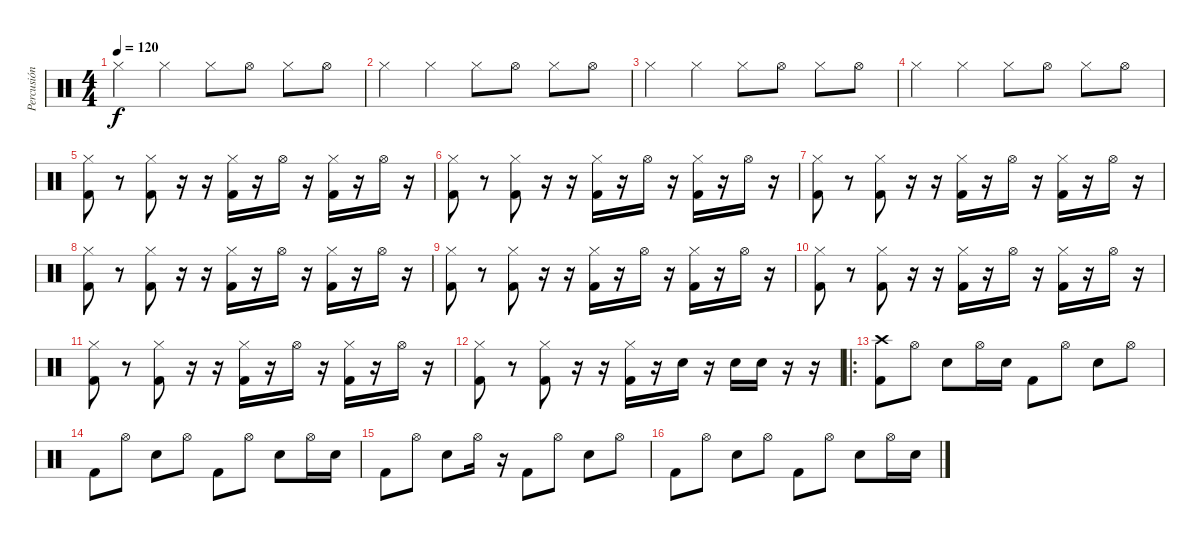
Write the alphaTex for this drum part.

\track ("Percusión" "Percusión") {instrument percussion}
\staff {score}
\articulation defaults
\ts (4 4)
\tempo 120
\clef neutral
\ks c "Hi-Hat (closed)".4{dy f} "Hi-Hat (closed)".4 "Hi-Hat (closed)".8 "Hi-Hat (open)".8 "Hi-Hat (closed)".8 "Hi-Hat (open)".8
|
"Hi-Hat (closed)".4 "Hi-Hat (closed)".4 "Hi-Hat (closed)".8 "Hi-Hat (open)".8 "Hi-Hat (closed)".8 "Hi-Hat (open)".8 |
"Hi-Hat (closed)".4 "Hi-Hat (closed)".4 "Hi-Hat (closed)".8 "Hi-Hat (open)".8 "Hi-Hat (closed)".8 "Hi-Hat (open)".8 |
"Hi-Hat (closed)".4 "Hi-Hat (closed)".4 "Hi-Hat (closed)".8 "Hi-Hat (open)".8 "Hi-Hat (closed)".8 "Hi-Hat (open)".8 |
("Hi-Hat (closed)" "Kick (hit) 2").8 r.8 ("Hi-Hat (closed)" "Kick (hit) 2").8 r.16 r.16 ("Hi-Hat (closed)" "Kick (hit) 2").16 r.16 "Hi-Hat (open)".16 r.16 ("Hi-Hat (closed)" "Kick (hit) 2").16 r.16 "Hi-Hat (open)".16 r.16 |
("Hi-Hat (closed)" "Kick (hit) 2").8 r.8 ("Hi-Hat (closed)" "Kick (hit) 2").8 r.16 r.16 ("Hi-Hat (closed)" "Kick (hit) 2").16 r.16 "Hi-Hat (open)".16 r.16 ("Hi-Hat (closed)" "Kick (hit) 2").16 r.16 "Hi-Hat (open)".16 r.16 |
("Hi-Hat (closed)" "Kick (hit) 2").8 r.8 ("Hi-Hat (closed)" "Kick (hit) 2").8 r.16 r.16 ("Hi-Hat (closed)" "Kick (hit) 2").16 r.16 "Hi-Hat (open)".16 r.16 ("Hi-Hat (closed)" "Kick (hit) 2").16 r.16 "Hi-Hat (open)".16 r.16 |
("Hi-Hat (closed)" "Kick (hit) 2").8 r.8 ("Hi-Hat (closed)" "Kick (hit) 2").8 r.16 r.16 ("Hi-Hat (closed)" "Kick (hit) 2").16 r.16 "Hi-Hat (open)".16 r.16 ("Hi-Hat (closed)" "Kick (hit) 2").16 r.16 "Hi-Hat (open)".16 r.16 |
("Hi-Hat (closed)" "Kick (hit) 2").8 r.8 ("Hi-Hat (closed)" "Kick (hit) 2").8 r.16 r.16 ("Hi-Hat (closed)" "Kick (hit) 2").16 r.16 "Hi-Hat (open)".16 r.16 ("Hi-Hat (closed)" "Kick (hit) 2").16 r.16 "Hi-Hat (open)".16 r.16 |
("Hi-Hat (closed)" "Kick (hit) 2").8 r.8 ("Hi-Hat (closed)" "Kick (hit) 2").8 r.16 r.16 ("Hi-Hat (closed)" "Kick (hit) 2").16 r.16 "Hi-Hat (open)".16 r.16 ("Hi-Hat (closed)" "Kick (hit) 2").16 r.16 "Hi-Hat (open)".16 r.16 |
("Hi-Hat (closed)" "Kick (hit) 2").8 r.8 ("Hi-Hat (closed)" "Kick (hit) 2").8 r.16 r.16 ("Hi-Hat (closed)" "Kick (hit) 2").16 r.16 "Hi-Hat (open)".16 r.16 ("Hi-Hat (closed)" "Kick (hit) 2").16 r.16 "Hi-Hat (open)".16 r.16 |
("Hi-Hat (closed)" "Kick (hit) 2").8 r.8 ("Hi-Hat (closed)" "Kick (hit) 2").8 r.16 r.16 ("Hi-Hat (closed)" "Kick (hit) 2").16 r.16 "Electric Snare (hit)".16 r.16 "Electric Snare (hit)".16 "Electric Snare (hit)".16 r.16 r.16 |
\ro
("Crash high (hit)" "Kick (hit) 2").8 "Hi-Hat (open)".8 "Snare (hit) 2".8 "Hi-Hat (open)".16 "Snare (hit) 2".16 "Kick (hit) 2".8 "Hi-Hat (open)".8 "Snare (hit) 2".8 "Hi-Hat (open)".8 |
"Kick (hit) 2".8 "Hi-Hat (open)".8 "Snare (hit) 2".8 "Hi-Hat (open)".8 "Kick (hit) 2".8 "Hi-Hat (open)".8 "Snare (hit) 2".8 "Hi-Hat (open)".16 "Snare (hit) 2".16 |
"Kick (hit) 2".8 "Hi-Hat (open)".8 "Snare (hit) 2".8 "Hi-Hat (open)".16 r.16 "Kick (hit) 2".8 "Hi-Hat (open)".8 "Snare (hit) 2".8 "Hi-Hat (open)".8 |
"Kick (hit) 2".8 "Hi-Hat (open)".8 "Snare (hit) 2".8 "Hi-Hat (open)".8 "Kick (hit) 2".8 "Hi-Hat (open)".8 "Snare (hit) 2".8 "Hi-Hat (open)".16 "Snare (hit) 2".16
